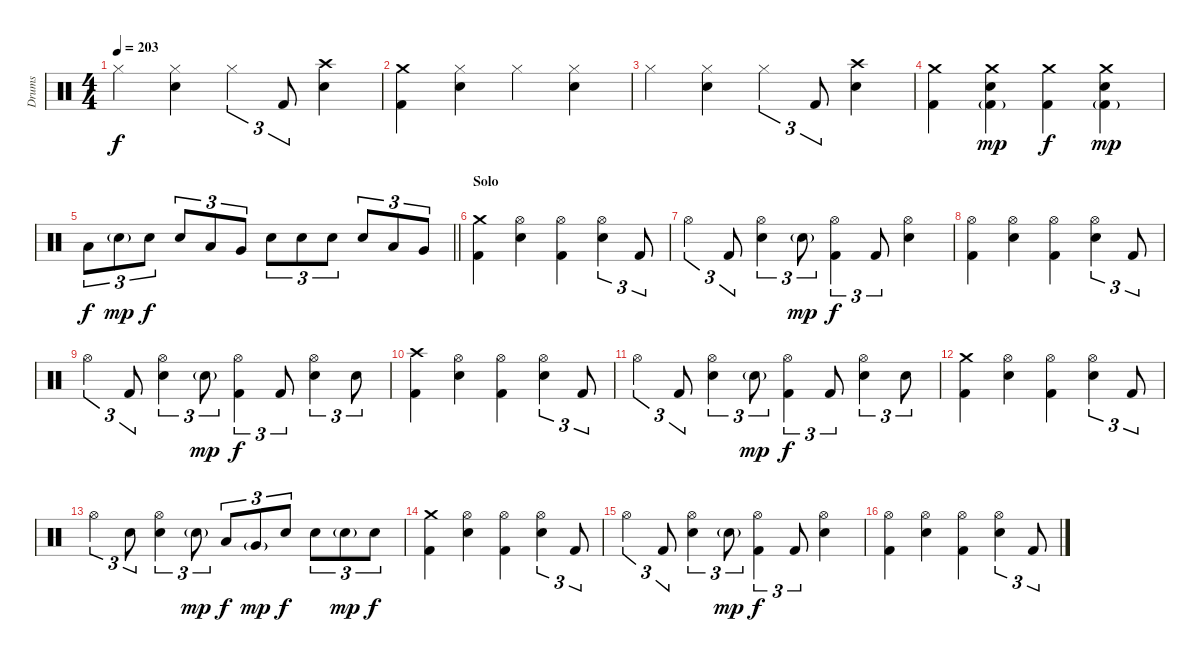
\track ("Drums" "Drums") {instrument percussion}
\staff {score}
\articulation defaults
\ts (4 4)
\tempo 203
\clef neutral
\ks c "Hi-Hat (closed)".4{dy f}
("Hi-Hat (closed)" "Electric Snare (hit)").4 "Hi-Hat (closed)".4{tu (3 2)} "Kick (hit) 2".8{tu (3 2)} ("Crash high (hit)" "Electric Snare (hit)").4 |
("Crash medium (hit)" "Kick (hit) 2").4 ("Hi-Hat (closed)" "Electric Snare (hit)").4 "Hi-Hat (closed)".4 ("Hi-Hat (closed)" "Electric Snare (hit)").4 |
"Hi-Hat (closed)".4 ("Hi-Hat (closed)" "Electric Snare (hit)").4 "Hi-Hat (closed)".4{tu (3 2)} "Kick (hit) 2".8{tu (3 2)} ("Crash high (hit)" "Electric Snare (hit)").4 |
("Crash medium (hit)" "Kick (hit) 2").4 ("Crash medium (hit)" "Electric Snare (hit)" "Kick (hit) 2"{g}).4{dy mp} ("Crash medium (hit)" "Kick (hit) 2").4{dy f} ("Crash medium (hit)" "Electric Snare (hit)" "Kick (hit) 2"{g}).4{dy mp} |
\barLineRight lightlight "Low Tom (hit)".8{tu (3 2) dy f} "Electric Snare (hit)"{g}.8{tu (3 2) dy mp} "Electric Snare (hit)".8{tu (3 2) dy f} "Electric Snare (hit)".8{tu (3 2)} "Low Tom (hit)".8{tu (3 2)} "Very Low Tom (hit)".8{tu (3 2)} "Electric Snare (hit)".8{tu (3 2)} "Electric Snare (hit)".8{tu (3 2)} "Electric Snare (hit)".8{tu (3 2)} "Electric Snare (hit)".8{tu (3 2)} "Low Tom (hit)".8{tu (3 2)} "Very Low Tom (hit)".8{tu (3 2)}
|
\section ("" "Solo")
("Crash medium (hit)" "Kick (hit) 2").4 ("Hi-Hat (open)" "Electric Snare (hit)").4 ("Hi-Hat (open)" "Kick (hit) 2").4 ("Hi-Hat (open)" "Electric Snare (hit)").4{tu (3 2)} "Kick (hit) 2".8{tu (3 2)} |
"Hi-Hat (open)".4{tu (3 2)} "Kick (hit) 2".8{tu (3 2)} ("Hi-Hat (open)" "Electric Snare (hit)").4{tu (3 2)} "Electric Snare (hit)"{g}.8{tu (3 2) dy mp} ("Hi-Hat (open)" "Kick (hit) 2").4{tu (3 2) dy f} "Kick (hit) 2".8{tu (3 2)} ("Hi-Hat (open)" "Electric Snare (hit)").4 |
("Hi-Hat (open)" "Kick (hit) 2").4 ("Hi-Hat (open)" "Electric Snare (hit)").4 ("Hi-Hat (open)" "Kick (hit) 2").4 ("Hi-Hat (open)" "Electric Snare (hit)").4{tu (3 2)} "Kick (hit) 2".8{tu (3 2)} |
"Hi-Hat (open)".4{tu (3 2)} "Kick (hit) 2".8{tu (3 2)} ("Hi-Hat (open)" "Electric Snare (hit)").4{tu (3 2)} "Electric Snare (hit)"{g}.8{tu (3 2) dy mp} ("Hi-Hat (open)" "Kick (hit) 2").4{tu (3 2) dy f} "Kick (hit) 2".8{tu (3 2)} ("Hi-Hat (open)" "Electric Snare (hit)").4{tu (3 2)} "Electric Snare (hit)".8{tu (3 2)} |
("Crash high (hit)" "Kick (hit) 2").4 ("Hi-Hat (open)" "Electric Snare (hit)").4 ("Hi-Hat (open)" "Kick (hit) 2").4 ("Hi-Hat (open)" "Electric Snare (hit)").4{tu (3 2)} "Kick (hit) 2".8{tu (3 2)} |
"Hi-Hat (open)".4{tu (3 2)} "Kick (hit) 2".8{tu (3 2)} ("Hi-Hat (open)" "Electric Snare (hit)").4{tu (3 2)} "Electric Snare (hit)"{g}.8{tu (3 2) dy mp} ("Hi-Hat (open)" "Kick (hit) 2").4{tu (3 2) dy f} "Kick (hit) 2".8{tu (3 2)} ("Hi-Hat (open)" "Electric Snare (hit)").4{tu (3 2)} "Electric Snare (hit)".8{tu (3 2)} |
("Crash medium (hit)" "Kick (hit) 2").4 ("Hi-Hat (open)" "Electric Snare (hit)").4 ("Hi-Hat (open)" "Kick (hit) 2").4 ("Hi-Hat (open)" "Electric Snare (hit)").4{tu (3 2)} "Kick (hit) 2".8{tu (3 2)} |
"Hi-Hat (open)".4{tu (3 2)} "Electric Snare (hit)".8{tu (3 2)} ("Hi-Hat (open)" "Electric Snare (hit)").4{tu (3 2)} "Electric Snare (hit)"{g}.8{tu (3 2) dy mp} "Low Tom (hit)".8{tu (3 2) dy f} "Very Low Tom (hit)"{g}.8{tu (3 2) dy mp} "Electric Snare (hit)".8{tu (3 2) dy f} "Electric Snare (hit)".8{tu (3 2)} "Electric Snare (hit)"{g}.8{tu (3 2) dy mp} "Electric Snare (hit)".8{tu (3 2) dy f} |
("Crash medium (hit)" "Kick (hit) 2").4 ("Hi-Hat (open)" "Electric Snare (hit)").4 ("Hi-Hat (open)" "Kick (hit) 2").4 ("Hi-Hat (open)" "Electric Snare (hit)").4{tu (3 2)} "Kick (hit) 2".8{tu (3 2)} |
"Hi-Hat (open)".4{tu (3 2)} "Kick (hit) 2".8{tu (3 2)} ("Hi-Hat (open)" "Electric Snare (hit)").4{tu (3 2)} "Electric Snare (hit)"{g}.8{tu (3 2) dy mp} ("Hi-Hat (open)" "Kick (hit) 2").4{tu (3 2) dy f} "Kick (hit) 2".8{tu (3 2)} ("Hi-Hat (open)" "Electric Snare (hit)").4 |
("Hi-Hat (open)" "Kick (hit) 2").4 ("Hi-Hat (open)" "Electric Snare (hit)").4 ("Hi-Hat (open)" "Kick (hit) 2").4 ("Hi-Hat (open)" "Electric Snare (hit)").4{tu (3 2)} "Kick (hit) 2".8{tu (3 2)}
